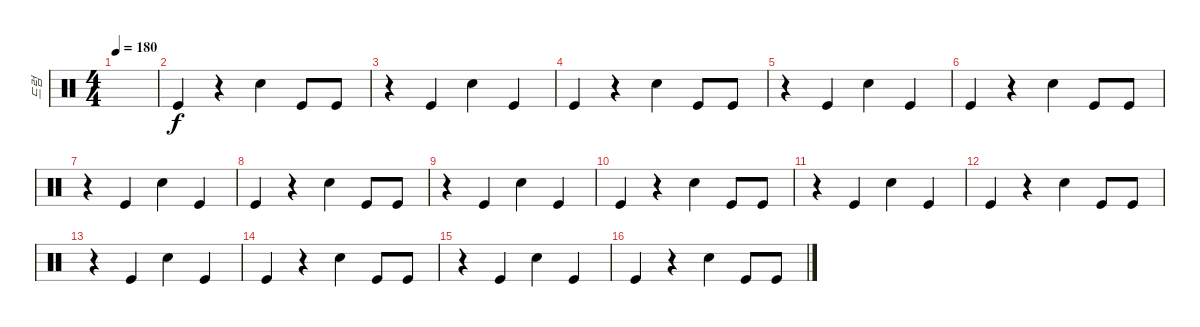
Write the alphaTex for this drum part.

\track ("드럼" "드럼") {instrument percussion}
\staff {score}
\articulation defaults
\ts (4 4)
\tempo 180
\clef neutral
\ks c
|
"Kick (hit)".4 r.4 "Snare (hit) 2".4 "Kick (hit)".8 "Kick (hit)".8 |
r.4 "Kick (hit)".4 "Snare (hit) 2".4 "Kick (hit)".4 |
"Kick (hit)".4 r.4 "Snare (hit) 2".4 "Kick (hit)".8 "Kick (hit)".8 |
r.4 "Kick (hit)".4 "Snare (hit) 2".4 "Kick (hit)".4 |
"Kick (hit)".4 r.4 "Snare (hit) 2".4 "Kick (hit)".8 "Kick (hit)".8 |
r.4 "Kick (hit)".4 "Snare (hit) 2".4 "Kick (hit)".4 |
"Kick (hit)".4 r.4 "Snare (hit) 2".4 "Kick (hit)".8 "Kick (hit)".8 |
r.4 "Kick (hit)".4 "Snare (hit) 2".4 "Kick (hit)".4 |
"Kick (hit)".4 r.4 "Snare (hit) 2".4 "Kick (hit)".8 "Kick (hit)".8 |
r.4 "Kick (hit)".4 "Snare (hit) 2".4 "Kick (hit)".4 |
"Kick (hit)".4 r.4 "Snare (hit) 2".4 "Kick (hit)".8 "Kick (hit)".8 |
r.4 "Kick (hit)".4 "Snare (hit) 2".4 "Kick (hit)".4 |
"Kick (hit)".4 r.4 "Snare (hit) 2".4 "Kick (hit)".8 "Kick (hit)".8 |
r.4 "Kick (hit)".4 "Snare (hit) 2".4 "Kick (hit)".4 |
"Kick (hit)".4 r.4 "Snare (hit) 2".4 "Kick (hit)".8 "Kick (hit)".8
